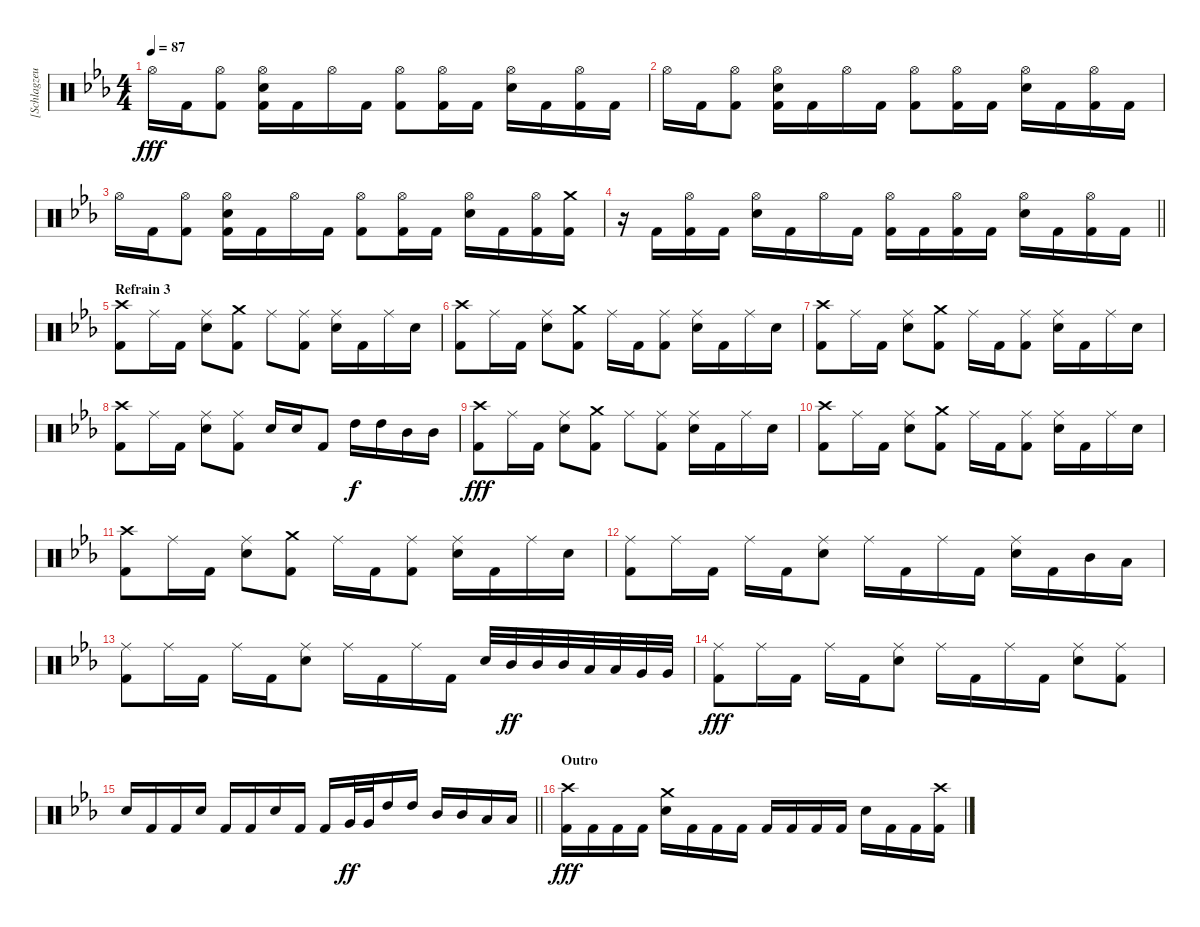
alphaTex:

\track ("[Schlagzeug]" "[Schlagzeu") {instrument percussion}
\staff {score}
\articulation defaults
\ts (4 4)
\tempo 87
\clef neutral
\ks cminor "Hi-Hat (open)".16{dy fff} "Kick (hit) 2".16
("Hi-Hat (open)" "Kick (hit) 2").8 ("Hi-Hat (open)" "Kick (hit) 2" "Electric Snare (hit)").16 "Kick (hit) 2".16 "Hi-Hat (open)".16 "Kick (hit) 2".16 ("Hi-Hat (open)" "Kick (hit) 2").8 ("Kick (hit) 2" "Hi-Hat (open)").16 "Kick (hit) 2".16 ("Hi-Hat (open)" "Electric Snare (hit)").16 "Kick (hit) 2".16 ("Kick (hit) 2" "Hi-Hat (open)").16 "Kick (hit) 2".16 |
"Hi-Hat (open)".16 "Kick (hit) 2".16 ("Hi-Hat (open)" "Kick (hit) 2").8 ("Hi-Hat (open)" "Kick (hit) 2" "Electric Snare (hit)").16 "Kick (hit) 2".16 "Hi-Hat (open)".16 "Kick (hit) 2".16 ("Hi-Hat (open)" "Kick (hit) 2").8 ("Kick (hit) 2" "Hi-Hat (open)").16 "Kick (hit) 2".16 ("Hi-Hat (open)" "Electric Snare (hit)").16 "Kick (hit) 2".16 ("Kick (hit) 2" "Hi-Hat (open)").16 "Kick (hit) 2".16 |
"Hi-Hat (open)".16 "Kick (hit) 2".16 ("Kick (hit) 2" "Hi-Hat (open)").8 ("Hi-Hat (open)" "Kick (hit) 2" "Electric Snare (hit)").16 "Kick (hit) 2".16 "Hi-Hat (open)".16 "Kick (hit) 2".16 ("Hi-Hat (open)" "Kick (hit) 2").8 ("Kick (hit) 2" "Hi-Hat (open)").16 "Kick (hit) 2".16 ("Hi-Hat (open)" "Electric Snare (hit)").16 "Kick (hit) 2".16 ("Kick (hit) 2" "Hi-Hat (open)").16 ("Crash medium (hit)" "Kick (hit) 2").16 |
\barLineRight lightlight
r.16 "Kick (hit) 2".16 ("Hi-Hat (open)" "Kick (hit) 2").16 "Kick (hit) 2".16 ("Hi-Hat (open)" "Electric Snare (hit)").16 "Kick (hit) 2".16 "Hi-Hat (open)".16 "Kick (hit) 2".16 ("Kick (hit) 2" "Hi-Hat (open)").16 "Kick (hit) 2".16 ("Kick (hit) 2" "Hi-Hat (open)").16 "Kick (hit) 2".16 ("Hi-Hat (open)" "Electric Snare (hit)").16 "Kick (hit) 2".16 ("Kick (hit) 2" "Hi-Hat (open)").16 "Kick (hit) 2".16 |
\section ("" "Refrain 3")
("Kick (hit) 2" "Crash high (hit)").8 "Ride (middle)".16 "Kick (hit) 2".16 ("Electric Snare (hit)" "Ride (middle)").8 ("Crash medium (hit)" "Kick (hit) 2").8 "Ride (middle)".8 ("Kick (hit) 2" "Ride (middle)").8 ("Electric Snare (hit)" "Ride (middle)").16 "Kick (hit) 2".16 "Ride (middle)".16 "Electric Snare (hit)".16 |
("Kick (hit) 2" "Crash high (hit)").8 "Ride (middle)".16 "Kick (hit) 2".16 ("Electric Snare (hit)" "Ride (middle)").8 ("Crash medium (hit)" "Kick (hit) 2").8 "Ride (middle)".16 "Kick (hit) 2".16 ("Kick (hit) 2" "Ride (middle)").8 ("Electric Snare (hit)" "Ride (middle)").16 "Kick (hit) 2".16 "Ride (middle)".16 "Electric Snare (hit)".16 |
("Kick (hit) 2" "Crash high (hit)").8 "Ride (middle)".16 "Kick (hit) 2".16 ("Electric Snare (hit)" "Ride (middle)").8 ("Crash medium (hit)" "Kick (hit) 2").8 "Ride (middle)".16 "Kick (hit) 2".16 ("Kick (hit) 2" "Ride (middle)").8 ("Electric Snare (hit)" "Ride (middle)").16 "Kick (hit) 2".16 "Ride (middle)".16 "Electric Snare (hit)".16 |
("Kick (hit) 2" "Crash high (hit)").8 "Ride (middle)".16 "Kick (hit) 2".16 ("Electric Snare (hit)" "Ride (middle)").8 ("Kick (hit) 2" "Ride (middle)").8 "Electric Snare (hit)".16 "Electric Snare (hit)".16 "Kick (hit) 2".8 "High Tom (hit)".16{dy f} "High Tom (hit)".16 "Mid Tom (hit)".16 "Mid Tom (hit)".16 |
("Kick (hit) 2" "Crash high (hit)").8{dy fff} "Ride (middle)".16 "Kick (hit) 2".16 ("Electric Snare (hit)" "Ride (middle)").8 ("Crash medium (hit)" "Kick (hit) 2").8 "Ride (middle)".8 ("Kick (hit) 2" "Ride (middle)").8 ("Electric Snare (hit)" "Ride (middle)").16 "Kick (hit) 2".16 "Ride (middle)".16 "Electric Snare (hit)".16 |
("Kick (hit) 2" "Crash high (hit)").8 "Ride (middle)".16 "Kick (hit) 2".16 ("Electric Snare (hit)" "Ride (middle)").8 ("Crash medium (hit)" "Kick (hit) 2").8 "Ride (middle)".16 "Kick (hit) 2".16 ("Kick (hit) 2" "Ride (middle)").8 ("Electric Snare (hit)" "Ride (middle)").16 "Kick (hit) 2".16 "Ride (middle)".16 "Electric Snare (hit)".16 |
("Kick (hit) 2" "Crash high (hit)").8 "Ride (middle)".16 "Kick (hit) 2".16 ("Electric Snare (hit)" "Ride (middle)").8 ("Crash medium (hit)" "Kick (hit) 2").8 "Ride (middle)".16 "Kick (hit) 2".16 ("Kick (hit) 2" "Ride (middle)").8 ("Electric Snare (hit)" "Ride (middle)").16 "Kick (hit) 2".16 "Ride (middle)".16 "Electric Snare (hit)".16 |
("Ride (middle)" "Kick (hit) 2").8 "Ride (middle)".16 "Kick (hit) 2".16 "Ride (middle)".16 "Kick (hit) 2".16 ("Electric Snare (hit)" "Ride (middle)").8 "Ride (middle)".16 "Kick (hit) 2".16 "Ride (middle)".16 "Kick (hit) 2".16 ("Ride (middle)" "Electric Snare (hit)").16 "Kick (hit) 2".16 "Mid Tom (hit)".16 "Low Tom (hit)".16 |
("Ride (middle)" "Kick (hit) 2").8 "Ride (middle)".16 "Kick (hit) 2".16 "Ride (middle)".16 "Kick (hit) 2".16 ("Electric Snare (hit)" "Ride (middle)").8 "Ride (middle)".16 "Kick (hit) 2".16 "Ride (middle)".16 "Kick (hit) 2".16 "Electric Snare (hit)".32 "Mid Tom (hit)".32{dy ff} "Mid Tom (hit)".32 "Mid Tom (hit)".32 "Low Tom (hit)".32 "Low Tom (hit)".32 "Very Low Tom (hit)".32 "Very Low Tom (hit)".32 |
("Ride (middle)" "Kick (hit) 2").8{dy fff} "Ride (middle)".16 "Kick (hit) 2".16 "Ride (middle)".16 "Kick (hit) 2".16 ("Electric Snare (hit)" "Ride (middle)").8 "Ride (middle)".16 "Kick (hit) 2".16 "Ride (middle)".16 "Kick (hit) 2".16 ("Ride (middle)" "Electric Snare (hit)").8 ("Kick (hit) 2" "Ride (middle)").8 |
\barLineRight lightlight "Electric Snare (hit)".16 "Kick (hit) 2".16 "Kick (hit) 2".16 "Electric Snare (hit)".16 "Kick (hit) 2".16 "Kick (hit) 2".16 "Electric Snare (hit)".16 "Kick (hit) 2".16 "Kick (hit) 2".16 "Very Low Tom (hit)".32{dy ff} "Very Low Tom (hit)".32 "High Tom (hit)".16 "High Tom (hit)".16 "Mid Tom (hit)".16 "Mid Tom (hit)".16 "Low Tom (hit)".16 "Low Tom (hit)".16
|
\section ("" "Outro")
("Crash high (hit)" "Kick (hit) 2").16{dy fff} "Kick (hit) 2".16 "Kick (hit) 2".16 "Kick (hit) 2".16 ("Crash medium (hit)" "Electric Snare (hit)").16 "Kick (hit) 2".16 "Kick (hit) 2".16 "Kick (hit) 2".16 "Kick (hit) 2".16 "Kick (hit) 2".16 "Kick (hit) 2".16 "Kick (hit) 2".16 "Electric Snare (hit)".16 "Kick (hit) 2".16 "Kick (hit) 2".16 ("Crash high (hit)" "Kick (hit) 2").16
